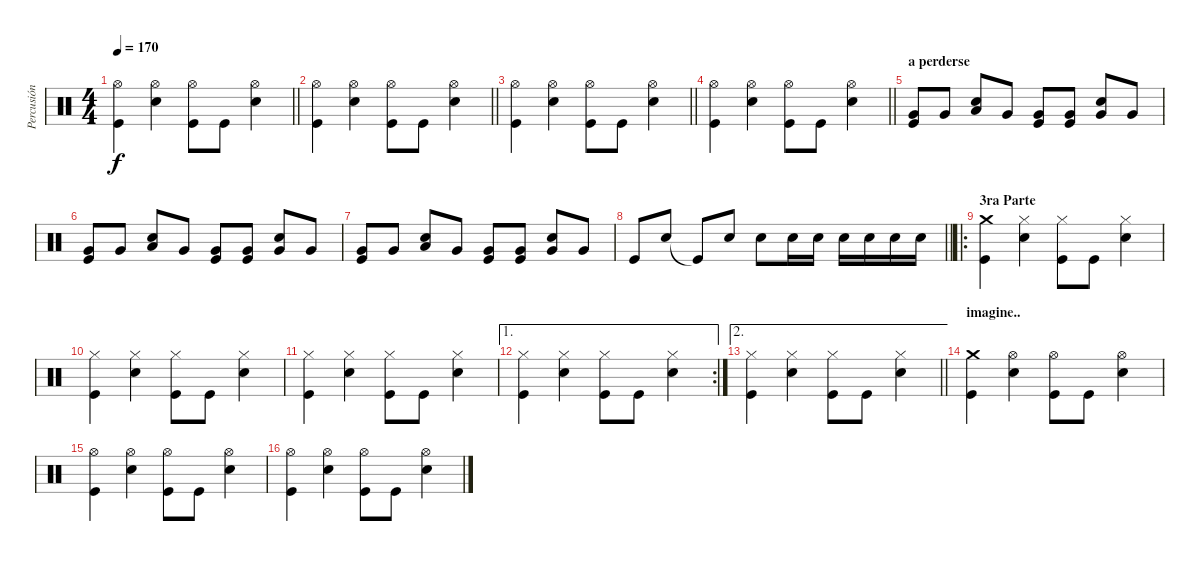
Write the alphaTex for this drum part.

\track ("Percusión" "Percusión") {instrument percussion}
\staff {score}
\articulation defaults
\ts (4 4)
\tempo 170
\clef neutral
\barLineRight lightlight
\ks c
("Hi-Hat (open)" "Kick (hit)").4{dy f} ("Hi-Hat (open)" "Electric Snare (hit)").4 ("Hi-Hat (open)" "Kick (hit)").8 "Kick (hit)".8 ("Hi-Hat (open)" "Electric Snare (hit)").4 |
\barLineRight lightlight
("Hi-Hat (open)" "Kick (hit)").4 ("Hi-Hat (open)" "Electric Snare (hit)").4 ("Hi-Hat (open)" "Kick (hit)").8 "Kick (hit)".8 ("Hi-Hat (open)" "Electric Snare (hit)").4 |
\barLineRight lightlight
("Hi-Hat (open)" "Kick (hit)").4 ("Hi-Hat (open)" "Electric Snare (hit)").4 ("Hi-Hat (open)" "Kick (hit)").8 "Kick (hit)".8 ("Hi-Hat (open)" "Electric Snare (hit)").4 |
\barLineRight lightlight
("Hi-Hat (open)" "Kick (hit)").4 ("Hi-Hat (open)" "Electric Snare (hit)").4 ("Hi-Hat (open)" "Kick (hit)").8 "Kick (hit)".8 ("Hi-Hat (open)" "Electric Snare (hit)").4 |
\section ("" "a perderse")
("Very Low Tom (hit)" "Kick (hit)").8 "Very Low Tom (hit)".8 ("Low Tom (hit)" "Electric Snare (hit)").8 "Very Low Tom (hit)".8 ("Very Low Tom (hit)" "Kick (hit)").8 ("Very Low Tom (hit)" "Kick (hit)").8 ("Very Low Tom (hit)" "Electric Snare (hit)").8 "Very Low Tom (hit)".8 |
("Very Low Tom (hit)" "Kick (hit)").8 "Very Low Tom (hit)".8 ("Low Tom (hit)" "Electric Snare (hit)").8 "Very Low Tom (hit)".8 ("Very Low Tom (hit)" "Kick (hit)").8 ("Very Low Tom (hit)" "Kick (hit)").8 ("Very Low Tom (hit)" "Electric Snare (hit)").8 "Very Low Tom (hit)".8 |
("Very Low Tom (hit)" "Kick (hit)").8 "Very Low Tom (hit)".8 ("Low Tom (hit)" "Electric Snare (hit)").8 "Very Low Tom (hit)".8 ("Very Low Tom (hit)" "Kick (hit)").8 ("Very Low Tom (hit)" "Kick (hit)").8 ("Very Low Tom (hit)" "Electric Snare (hit)").8 "Very Low Tom (hit)".8 |
\barLineRight lightlight "Kick (hit)".8 "Electric Snare (hit)".8 "Kick (hit)"{t}.8 "Electric Snare (hit)".8 "Electric Snare (hit)".8 "Electric Snare (hit)".16 "Electric Snare (hit)".16 "Electric Snare (hit)".16 "Electric Snare (hit)".16 "Electric Snare (hit)".16 "Electric Snare (hit)".16
|
\ro
\section ("" "3ra Parte")
("Crash medium (hit)" "Kick (hit)").4 ("Hi-Hat (closed)" "Electric Snare (hit)").4 ("Hi-Hat (closed)" "Kick (hit)").8 "Kick (hit)".8 ("Hi-Hat (closed)" "Electric Snare (hit)").4 |
("Hi-Hat (closed)" "Kick (hit)").4 ("Hi-Hat (closed)" "Electric Snare (hit)").4 ("Hi-Hat (closed)" "Kick (hit)").8 "Kick (hit)".8 ("Hi-Hat (closed)" "Electric Snare (hit)").4 |
("Hi-Hat (closed)" "Kick (hit)").4 ("Hi-Hat (closed)" "Electric Snare (hit)").4 ("Hi-Hat (closed)" "Kick (hit)").8 "Kick (hit)".8 ("Hi-Hat (closed)" "Electric Snare (hit)").4 |
\ae 1
\rc 2
("Hi-Hat (closed)" "Kick (hit)").4 ("Hi-Hat (closed)" "Electric Snare (hit)").4 ("Hi-Hat (closed)" "Kick (hit)").8 "Kick (hit)".8 ("Hi-Hat (closed)" "Electric Snare (hit)").4 |
\ae 2
\barLineRight lightlight
("Hi-Hat (closed)" "Kick (hit)").4 ("Hi-Hat (closed)" "Electric Snare (hit)").4 ("Hi-Hat (closed)" "Kick (hit)").8 "Kick (hit)".8 ("Hi-Hat (closed)" "Electric Snare (hit)").4 |
\section ("" "imagine..")
("Crash medium (hit)" "Kick (hit)").4 ("Hi-Hat (open)" "Electric Snare (hit)").4 ("Hi-Hat (open)" "Kick (hit)").8 "Kick (hit)".8 ("Hi-Hat (open)" "Electric Snare (hit)").4 |
("Hi-Hat (open)" "Kick (hit)").4 ("Hi-Hat (open)" "Electric Snare (hit)").4 ("Hi-Hat (open)" "Kick (hit)").8 "Kick (hit)".8 ("Hi-Hat (open)" "Electric Snare (hit)").4 |
("Hi-Hat (open)" "Kick (hit)").4 ("Hi-Hat (open)" "Electric Snare (hit)").4 ("Hi-Hat (open)" "Kick (hit)").8 "Kick (hit)".8 ("Hi-Hat (open)" "Electric Snare (hit)").4
